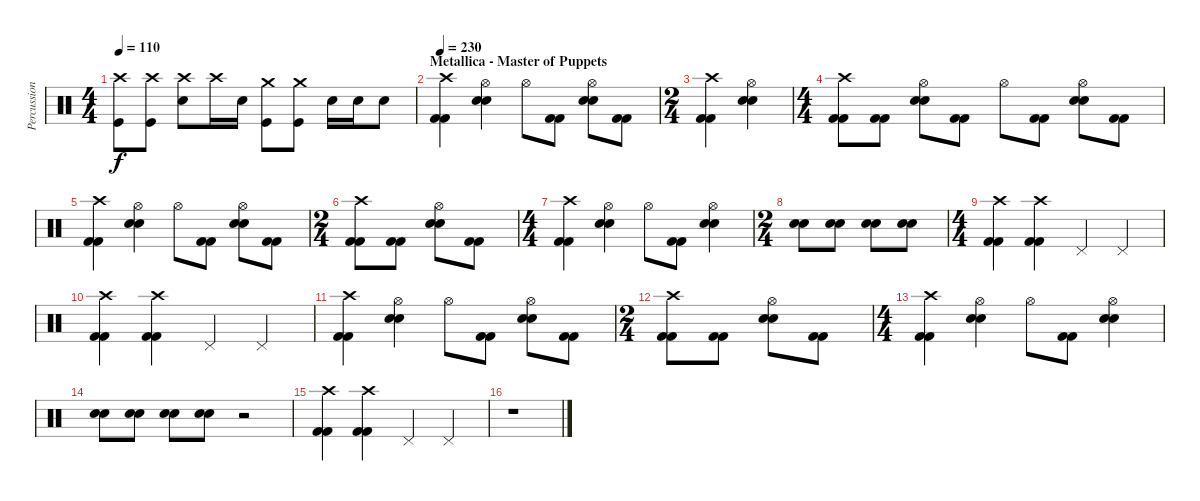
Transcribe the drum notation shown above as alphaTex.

\track ("Percussion" "Percussion") {instrument percussion}
\staff {score}
\articulation defaults
\ts (4 4)
\tempo 110
\clef neutral
\ks c
("Crash high (hit)" "Kick (hit)").8{dy f} ("Crash high (hit)" "Kick (hit)").8 ("Crash high (hit)" "Snare (hit) 2").8 "Crash high (hit)".16 "Snare (hit) 2".16 ("Crash medium (hit)" "Kick (hit)").8 ("Crash medium (hit)" "Kick (hit)").8 "Snare (hit) 2".16 "Snare (hit) 2".16 "Snare (hit) 2".8 |
\section ("" "Metallica - Master of Puppets")
\tempo 230
("Crash high (hit)" "Kick (hit) 2" "Kick (hit) 2").4 ("Hi-Hat (open)" "Electric Snare (hit)" "Electric Snare (hit)").4 "Hi-Hat (open)".8 ("Kick (hit) 2" "Kick (hit) 2").8 ("Hi-Hat (open)" "Electric Snare (hit)" "Electric Snare (hit)").8 ("Kick (hit) 2" "Kick (hit) 2").8 |
\ts (2 4)
("Crash high (hit)" "Kick (hit) 2" "Kick (hit) 2").4 ("Hi-Hat (open)" "Electric Snare (hit)" "Electric Snare (hit)").4 |
\ts (4 4)
("Crash high (hit)" "Kick (hit) 2" "Kick (hit) 2").8 ("Kick (hit) 2" "Kick (hit) 2").8 ("Hi-Hat (open)" "Electric Snare (hit)" "Electric Snare (hit)").8 ("Kick (hit) 2" "Kick (hit) 2").8 "Hi-Hat (open)".8 ("Kick (hit) 2" "Kick (hit) 2").8 ("Hi-Hat (open)" "Electric Snare (hit)" "Electric Snare (hit)").8 ("Kick (hit) 2" "Kick (hit) 2").8 |
("Crash high (hit)" "Kick (hit) 2" "Kick (hit) 2").4 ("Hi-Hat (open)" "Electric Snare (hit)" "Electric Snare (hit)").4 "Hi-Hat (open)".8 ("Kick (hit) 2" "Kick (hit) 2").8 ("Hi-Hat (open)" "Electric Snare (hit)" "Electric Snare (hit)").8 ("Kick (hit) 2" "Kick (hit) 2").8 |
\ts (2 4)
("Crash high (hit)" "Kick (hit) 2" "Kick (hit) 2").8 ("Kick (hit) 2" "Kick (hit) 2").8 ("Hi-Hat (open)" "Electric Snare (hit)" "Electric Snare (hit)").8 ("Kick (hit) 2" "Kick (hit) 2").8 |
\ts (4 4)
("Crash high (hit)" "Kick (hit) 2" "Kick (hit) 2").4 ("Hi-Hat (open)" "Electric Snare (hit)" "Electric Snare (hit)").4 "Hi-Hat (open)".8 ("Kick (hit) 2" "Kick (hit) 2").8 ("Hi-Hat (open)" "Electric Snare (hit)" "Electric Snare (hit)").4 |
\ts (2 4)
("Electric Snare (hit)" "Electric Snare (hit)").8 ("Electric Snare (hit)" "Electric Snare (hit)").8 ("Electric Snare (hit)" "Electric Snare (hit)").8 ("Electric Snare (hit)" "Electric Snare (hit)").8 |
\ts (4 4)
("Crash high (hit)" "Kick (hit) 2" "Kick (hit) 2").4 ("Crash high (hit)" "Kick (hit) 2" "Kick (hit) 2").4 "Pedal Hi-Hat (hit)".4 "Pedal Hi-Hat (hit)".4 |
("Crash high (hit)" "Kick (hit) 2" "Kick (hit) 2").4 ("Crash high (hit)" "Kick (hit) 2" "Kick (hit) 2").4 "Pedal Hi-Hat (hit)".4 "Pedal Hi-Hat (hit)".4 |
("Crash high (hit)" "Kick (hit) 2" "Kick (hit) 2").4 ("Hi-Hat (open)" "Electric Snare (hit)" "Electric Snare (hit)").4 "Hi-Hat (open)".8 ("Kick (hit) 2" "Kick (hit) 2").8 ("Hi-Hat (open)" "Electric Snare (hit)" "Electric Snare (hit)").8 ("Kick (hit) 2" "Kick (hit) 2").8 |
\ts (2 4)
("Crash high (hit)" "Kick (hit) 2" "Kick (hit) 2").8 ("Kick (hit) 2" "Kick (hit) 2").8 ("Hi-Hat (open)" "Electric Snare (hit)" "Electric Snare (hit)").8 ("Kick (hit) 2" "Kick (hit) 2").8 |
\ts (4 4)
("Crash high (hit)" "Kick (hit) 2" "Kick (hit) 2").4 ("Hi-Hat (open)" "Electric Snare (hit)" "Electric Snare (hit)").4 "Hi-Hat (open)".8 ("Kick (hit) 2" "Kick (hit) 2").8 ("Hi-Hat (open)" "Electric Snare (hit)" "Electric Snare (hit)").4 |
("Electric Snare (hit)" "Electric Snare (hit)").8 ("Electric Snare (hit)" "Electric Snare (hit)").8 ("Electric Snare (hit)" "Electric Snare (hit)").8 ("Electric Snare (hit)" "Electric Snare (hit)").8 r.2 |
("Crash high (hit)" "Kick (hit) 2" "Kick (hit) 2").4 ("Crash high (hit)" "Kick (hit) 2" "Kick (hit) 2").4 "Pedal Hi-Hat (hit)".4 "Pedal Hi-Hat (hit)".4 |
r.1
